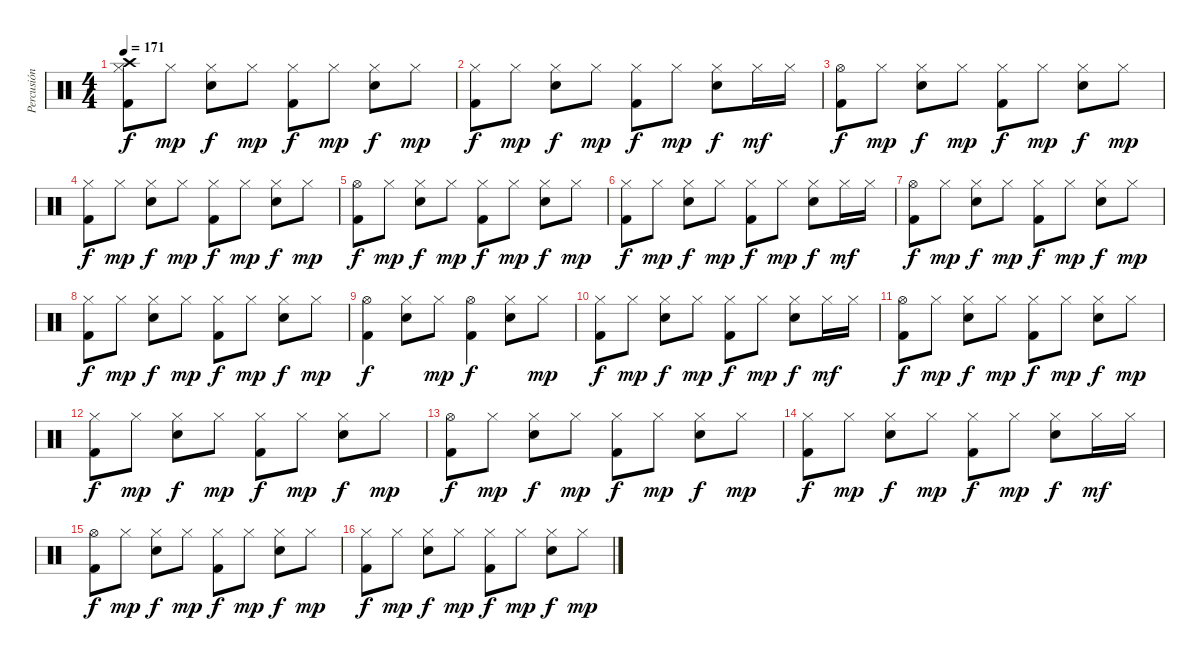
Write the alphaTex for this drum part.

\track ("Percusión" "Percusión") {instrument percussion}
\staff {score}
\articulation defaults
\ts (4 4)
\tempo 171
\clef neutral
\ks c
("Crash high (hit)" "Hi-Hat (closed)" "Kick (hit) 2").8{dy f} "Hi-Hat (closed)".8{dy mp} ("Hi-Hat (closed)" "Electric Snare (hit)").8{dy f} "Hi-Hat (closed)".8{dy mp} ("Hi-Hat (closed)" "Kick (hit) 2").8{dy f} "Hi-Hat (closed)".8{dy mp} ("Hi-Hat (closed)" "Electric Snare (hit)").8{dy f} "Hi-Hat (closed)".8{dy mp} |
("Hi-Hat (closed)" "Kick (hit) 2").8{dy f} "Hi-Hat (closed)".8{dy mp} ("Hi-Hat (closed)" "Electric Snare (hit)").8{dy f} "Hi-Hat (closed)".8{dy mp} ("Hi-Hat (closed)" "Kick (hit) 2").8{dy f} "Hi-Hat (closed)".8{dy mp} ("Hi-Hat (closed)" "Electric Snare (hit)").8{dy f} "Hi-Hat (closed)".16{dy mf} "Hi-Hat (closed)".16 |
("Hi-Hat (open)" "Kick (hit) 2").8{dy f} "Hi-Hat (closed)".8{dy mp} ("Hi-Hat (closed)" "Electric Snare (hit)").8{dy f} "Hi-Hat (closed)".8{dy mp} ("Hi-Hat (closed)" "Kick (hit) 2").8{dy f} "Hi-Hat (closed)".8{dy mp} ("Hi-Hat (closed)" "Electric Snare (hit)").8{dy f} "Hi-Hat (closed)".8{dy mp} |
("Hi-Hat (closed)" "Kick (hit) 2").8{dy f} "Hi-Hat (closed)".8{dy mp} ("Hi-Hat (closed)" "Electric Snare (hit)").8{dy f} "Hi-Hat (closed)".8{dy mp} ("Hi-Hat (closed)" "Kick (hit) 2").8{dy f} "Hi-Hat (closed)".8{dy mp} ("Hi-Hat (closed)" "Electric Snare (hit)").8{dy f} "Hi-Hat (closed)".8{dy mp} |
("Hi-Hat (open)" "Kick (hit) 2").8{dy f} "Hi-Hat (closed)".8{dy mp} ("Hi-Hat (closed)" "Electric Snare (hit)").8{dy f} "Hi-Hat (closed)".8{dy mp} ("Hi-Hat (closed)" "Kick (hit) 2").8{dy f} "Hi-Hat (closed)".8{dy mp} ("Hi-Hat (closed)" "Electric Snare (hit)").8{dy f} "Hi-Hat (closed)".8{dy mp} |
("Hi-Hat (closed)" "Kick (hit) 2").8{dy f} "Hi-Hat (closed)".8{dy mp} ("Hi-Hat (closed)" "Electric Snare (hit)").8{dy f} "Hi-Hat (closed)".8{dy mp} ("Hi-Hat (closed)" "Kick (hit) 2").8{dy f} "Hi-Hat (closed)".8{dy mp} ("Hi-Hat (closed)" "Electric Snare (hit)").8{dy f} "Hi-Hat (closed)".16{dy mf} "Hi-Hat (closed)".16 |
("Hi-Hat (open)" "Kick (hit) 2").8{dy f} "Hi-Hat (closed)".8{dy mp} ("Hi-Hat (closed)" "Electric Snare (hit)").8{dy f} "Hi-Hat (closed)".8{dy mp} ("Hi-Hat (closed)" "Kick (hit) 2").8{dy f} "Hi-Hat (closed)".8{dy mp} ("Hi-Hat (closed)" "Electric Snare (hit)").8{dy f} "Hi-Hat (closed)".8{dy mp} |
("Hi-Hat (closed)" "Kick (hit) 2").8{dy f} "Hi-Hat (closed)".8{dy mp} ("Hi-Hat (closed)" "Electric Snare (hit)").8{dy f} "Hi-Hat (closed)".8{dy mp} ("Hi-Hat (closed)" "Kick (hit) 2").8{dy f} "Hi-Hat (closed)".8{dy mp} ("Hi-Hat (closed)" "Electric Snare (hit)").8{dy f} "Hi-Hat (closed)".8{dy mp} |
("Hi-Hat (open)" "Kick (hit) 2").4{dy f} ("Hi-Hat (closed)" "Electric Snare (hit)").8 "Hi-Hat (closed)".8{dy mp} ("Hi-Hat (open)" "Kick (hit) 2").4{dy f} ("Hi-Hat (closed)" "Electric Snare (hit)").8 "Hi-Hat (closed)".8{dy mp} |
("Hi-Hat (closed)" "Kick (hit) 2").8{dy f} "Hi-Hat (closed)".8{dy mp} ("Hi-Hat (closed)" "Electric Snare (hit)").8{dy f} "Hi-Hat (closed)".8{dy mp} ("Hi-Hat (closed)" "Kick (hit) 2").8{dy f} "Hi-Hat (closed)".8{dy mp} ("Hi-Hat (closed)" "Electric Snare (hit)").8{dy f} "Hi-Hat (closed)".16{dy mf} "Hi-Hat (closed)".16 |
("Hi-Hat (open)" "Kick (hit) 2").8{dy f} "Hi-Hat (closed)".8{dy mp} ("Hi-Hat (closed)" "Electric Snare (hit)").8{dy f} "Hi-Hat (closed)".8{dy mp} ("Hi-Hat (closed)" "Kick (hit) 2").8{dy f} "Hi-Hat (closed)".8{dy mp} ("Hi-Hat (closed)" "Electric Snare (hit)").8{dy f} "Hi-Hat (closed)".8{dy mp} |
("Hi-Hat (closed)" "Kick (hit) 2").8{dy f} "Hi-Hat (closed)".8{dy mp} ("Hi-Hat (closed)" "Electric Snare (hit)").8{dy f} "Hi-Hat (closed)".8{dy mp} ("Hi-Hat (closed)" "Kick (hit) 2").8{dy f} "Hi-Hat (closed)".8{dy mp} ("Hi-Hat (closed)" "Electric Snare (hit)").8{dy f} "Hi-Hat (closed)".8{dy mp} |
("Hi-Hat (open)" "Kick (hit) 2").8{dy f} "Hi-Hat (closed)".8{dy mp} ("Hi-Hat (closed)" "Electric Snare (hit)").8{dy f} "Hi-Hat (closed)".8{dy mp} ("Hi-Hat (closed)" "Kick (hit) 2").8{dy f} "Hi-Hat (closed)".8{dy mp} ("Hi-Hat (closed)" "Electric Snare (hit)").8{dy f} "Hi-Hat (closed)".8{dy mp} |
("Hi-Hat (closed)" "Kick (hit) 2").8{dy f} "Hi-Hat (closed)".8{dy mp} ("Hi-Hat (closed)" "Electric Snare (hit)").8{dy f} "Hi-Hat (closed)".8{dy mp} ("Hi-Hat (closed)" "Kick (hit) 2").8{dy f} "Hi-Hat (closed)".8{dy mp} ("Hi-Hat (closed)" "Electric Snare (hit)").8{dy f} "Hi-Hat (closed)".16{dy mf} "Hi-Hat (closed)".16 |
("Hi-Hat (open)" "Kick (hit) 2").8{dy f} "Hi-Hat (closed)".8{dy mp} ("Hi-Hat (closed)" "Electric Snare (hit)").8{dy f} "Hi-Hat (closed)".8{dy mp} ("Hi-Hat (closed)" "Kick (hit) 2").8{dy f} "Hi-Hat (closed)".8{dy mp} ("Hi-Hat (closed)" "Electric Snare (hit)").8{dy f} "Hi-Hat (closed)".8{dy mp} |
("Hi-Hat (closed)" "Kick (hit) 2").8{dy f} "Hi-Hat (closed)".8{dy mp} ("Hi-Hat (closed)" "Electric Snare (hit)").8{dy f} "Hi-Hat (closed)".8{dy mp} ("Hi-Hat (closed)" "Kick (hit) 2").8{dy f} "Hi-Hat (closed)".8{dy mp} ("Hi-Hat (closed)" "Electric Snare (hit)").8{dy f} "Hi-Hat (closed)".8{dy mp}
